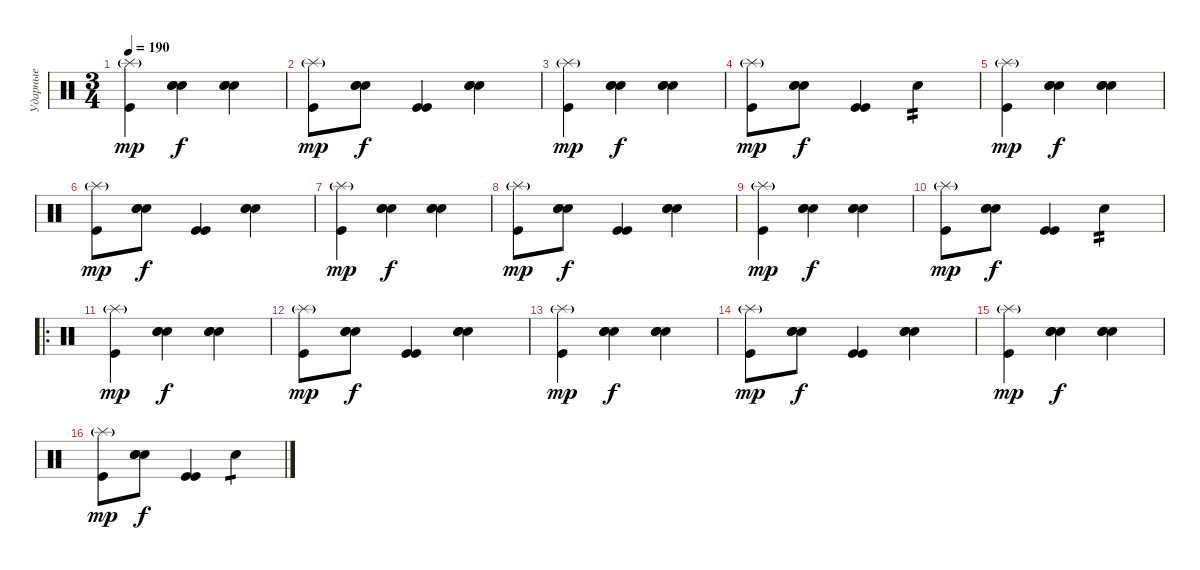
\track ("Ударные" "Ударные") {instrument percussion}
\staff {score}
\articulation defaults
\ts (3 4)
\tempo 190
\clef neutral
\ks c
("Splash (hit)"{g} "Kick (hit)").4{dy mp} ("Snare (hit) 2" "Snare (hit) 2" "Snare (hit) 2").4{dy f} ("Snare (hit) 2" "Snare (hit) 2" "Snare (hit) 2").4 |
("Splash (hit)"{g} "Kick (hit)").8{dy mp} ("Snare (hit) 2" "Snare (hit) 2" "Snare (hit) 2").8{dy f} ("Kick (hit)" "Kick (hit)").4 ("Snare (hit) 2" "Snare (hit) 2" "Snare (hit) 2").4 |
("Splash (hit)"{g} "Kick (hit)").4{dy mp} ("Snare (hit) 2" "Snare (hit) 2" "Snare (hit) 2").4{dy f} ("Snare (hit) 2" "Snare (hit) 2" "Snare (hit) 2").4 |
("Splash (hit)"{g} "Kick (hit)").8{dy mp} ("Snare (hit) 2" "Snare (hit) 2" "Snare (hit) 2").8{dy f} ("Kick (hit)" "Kick (hit)").4 "Snare (hit) 2".4{tp 2} |
("Splash (hit)"{g} "Kick (hit)").4{dy mp volume 16} ("Snare (hit) 2" "Snare (hit) 2" "Snare (hit) 2").4{dy f} ("Snare (hit) 2" "Snare (hit) 2" "Snare (hit) 2").4 |
("Splash (hit)"{g} "Kick (hit)").8{dy mp} ("Snare (hit) 2" "Snare (hit) 2" "Snare (hit) 2").8{dy f} ("Kick (hit)" "Kick (hit)").4 ("Snare (hit) 2" "Snare (hit) 2" "Snare (hit) 2").4 |
("Splash (hit)"{g} "Kick (hit)").4{dy mp} ("Snare (hit) 2" "Snare (hit) 2" "Snare (hit) 2").4{dy f} ("Snare (hit) 2" "Snare (hit) 2" "Snare (hit) 2").4 |
("Splash (hit)"{g} "Kick (hit)").8{dy mp} ("Snare (hit) 2" "Snare (hit) 2" "Snare (hit) 2").8{dy f} ("Kick (hit)" "Kick (hit)").4 ("Snare (hit) 2" "Snare (hit) 2" "Snare (hit) 2").4 |
("Splash (hit)"{g} "Kick (hit)").4{dy mp} ("Snare (hit) 2" "Snare (hit) 2" "Snare (hit) 2").4{dy f} ("Snare (hit) 2" "Snare (hit) 2" "Snare (hit) 2").4 |
("Splash (hit)"{g} "Kick (hit)").8{dy mp} ("Snare (hit) 2" "Snare (hit) 2" "Snare (hit) 2").8{dy f} ("Kick (hit)" "Kick (hit)").4 "Snare (hit) 2".4{tp 2} |
\ro
("Splash (hit)"{g} "Kick (hit)").4{dy mp} ("Snare (hit) 2" "Snare (hit) 2" "Snare (hit) 2").4{dy f} ("Snare (hit) 2" "Snare (hit) 2" "Snare (hit) 2").4 |
("Splash (hit)"{g} "Kick (hit)").8{dy mp} ("Snare (hit) 2" "Snare (hit) 2" "Snare (hit) 2").8{dy f} ("Kick (hit)" "Kick (hit)").4 ("Snare (hit) 2" "Snare (hit) 2" "Snare (hit) 2").4 |
("Splash (hit)"{g} "Kick (hit)").4{dy mp} ("Snare (hit) 2" "Snare (hit) 2" "Snare (hit) 2").4{dy f} ("Snare (hit) 2" "Snare (hit) 2" "Snare (hit) 2").4 |
("Splash (hit)"{g} "Kick (hit)").8{dy mp} ("Snare (hit) 2" "Snare (hit) 2" "Snare (hit) 2").8{dy f} ("Kick (hit)" "Kick (hit)").4 ("Snare (hit) 2" "Snare (hit) 2" "Snare (hit) 2").4 |
("Splash (hit)"{g} "Kick (hit)").4{dy mp} ("Snare (hit) 2" "Snare (hit) 2" "Snare (hit) 2").4{dy f} ("Snare (hit) 2" "Snare (hit) 2" "Snare (hit) 2").4 |
("Splash (hit)"{g} "Kick (hit)").8{dy mp} ("Snare (hit) 2" "Snare (hit) 2" "Snare (hit) 2").8{dy f} ("Kick (hit)" "Kick (hit)").4 "Snare (hit) 2".4{tp 1}
